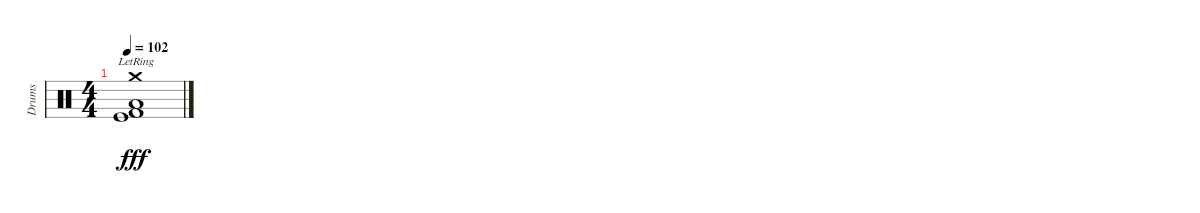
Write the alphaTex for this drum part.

\track ("Drums" "Drums") {instrument percussion}
\staff {score}
\articulation defaults
\ts (4 4)
\tempo 102
\clef neutral
\ks c
("Crash medium (hit)"{lr} "Low Tom (hit)" "Kick (hit) 2" "Kick (hit)").1{dy fff}
